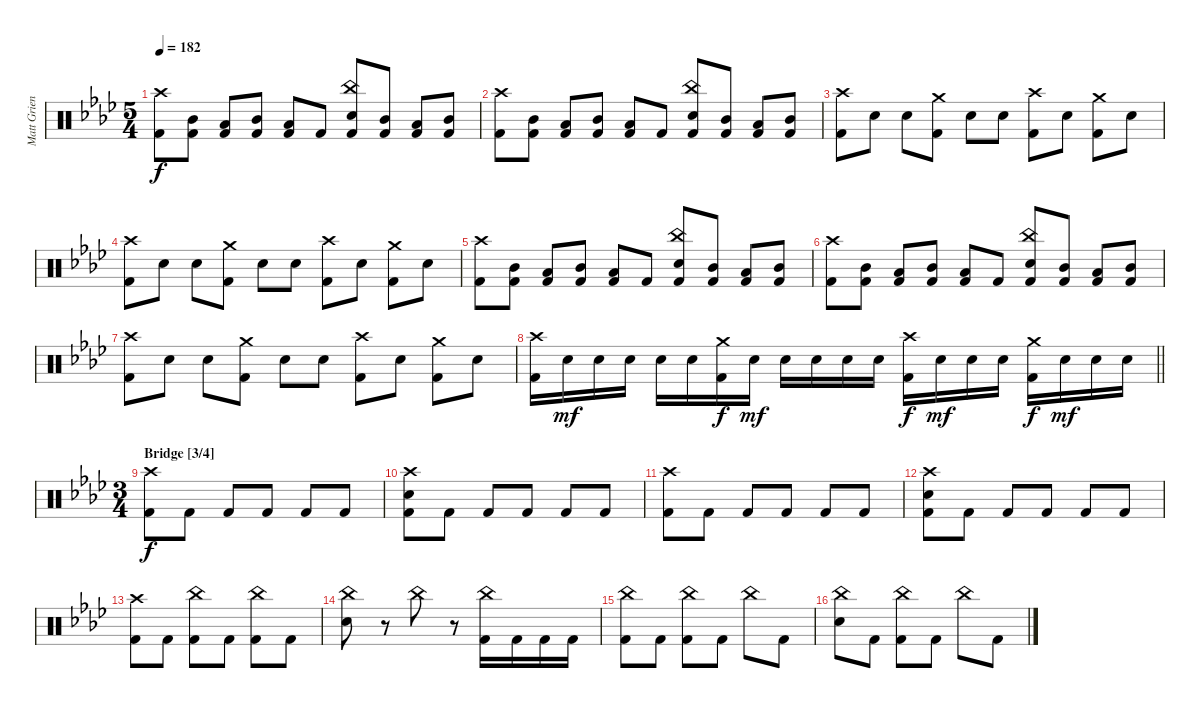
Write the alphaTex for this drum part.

\track ("Matt Griener [Drum Kit]" "Matt Grien") {instrument percussion}
\staff {score}
\articulation defaults
\ts (5 4)
\tempo 182
\clef neutral
\ks fminor
("Crash high (hit)" "Kick (hit) 2").8{dy f} ("Mid Tom (hit)" "Kick (hit) 2").8 ("Low Tom (hit)" "Kick (hit) 2").8 ("Mid Tom (hit)" "Kick (hit) 2").8 ("Low Floor Tom (hit)" "Kick (hit) 2").8 "Kick (hit) 2".8 ("China (hit)" "Electric Snare (hit)" "Kick (hit) 2").8 ("Mid Tom (hit)" "Kick (hit) 2").8 ("Low Tom (hit)" "Kick (hit) 2").8 ("Mid Tom (hit)" "Kick (hit) 2").8 |
("Crash high (hit)" "Kick (hit) 2").8 ("Mid Tom (hit)" "Kick (hit) 2").8 ("Low Tom (hit)" "Kick (hit) 2").8 ("Mid Tom (hit)" "Kick (hit) 2").8 ("Low Floor Tom (hit)" "Kick (hit) 2").8 "Kick (hit) 2".8 ("China (hit)" "Electric Snare (hit)" "Kick (hit) 2").8 ("Mid Tom (hit)" "Kick (hit) 2").8 ("Low Tom (hit)" "Kick (hit) 2").8 ("Mid Tom (hit)" "Kick (hit) 2").8 |
("Crash high (hit)" "Kick (hit) 2").8 "Electric Snare (hit)".8 "Electric Snare (hit)".8 ("Crash medium (hit)" "Kick (hit) 2").8 "Electric Snare (hit)".8 "Electric Snare (hit)".8 ("Crash high (hit)" "Kick (hit) 2").8 "Electric Snare (hit)".8 ("Crash medium (hit)" "Kick (hit) 2").8 "Electric Snare (hit)".8 |
("Crash high (hit)" "Kick (hit) 2").8 "Electric Snare (hit)".8 "Electric Snare (hit)".8 ("Crash medium (hit)" "Kick (hit) 2").8 "Electric Snare (hit)".8 "Electric Snare (hit)".8 ("Crash high (hit)" "Kick (hit) 2").8 "Electric Snare (hit)".8 ("Crash medium (hit)" "Kick (hit) 2").8 "Electric Snare (hit)".8 |
("Crash high (hit)" "Kick (hit) 2").8 ("Mid Tom (hit)" "Kick (hit) 2").8 ("Low Tom (hit)" "Kick (hit) 2").8 ("Mid Tom (hit)" "Kick (hit) 2").8 ("Low Floor Tom (hit)" "Kick (hit) 2").8 "Kick (hit) 2".8 ("China (hit)" "Electric Snare (hit)" "Kick (hit) 2").8 ("Mid Tom (hit)" "Kick (hit) 2").8 ("Low Tom (hit)" "Kick (hit) 2").8 ("Mid Tom (hit)" "Kick (hit) 2").8 |
("Crash high (hit)" "Kick (hit) 2").8 ("Mid Tom (hit)" "Kick (hit) 2").8 ("Low Tom (hit)" "Kick (hit) 2").8 ("Mid Tom (hit)" "Kick (hit) 2").8 ("Low Floor Tom (hit)" "Kick (hit) 2").8 "Kick (hit) 2".8 ("China (hit)" "Electric Snare (hit)" "Kick (hit) 2").8 ("Mid Tom (hit)" "Kick (hit) 2").8 ("Low Tom (hit)" "Kick (hit) 2").8 ("Mid Tom (hit)" "Kick (hit) 2").8 |
("Crash high (hit)" "Kick (hit) 2").8 "Electric Snare (hit)".8 "Electric Snare (hit)".8 ("Crash medium (hit)" "Kick (hit) 2").8 "Electric Snare (hit)".8 "Electric Snare (hit)".8 ("Crash high (hit)" "Kick (hit) 2").8 "Electric Snare (hit)".8 ("Crash medium (hit)" "Kick (hit) 2").8 "Electric Snare (hit)".8 |
\barLineRight lightlight
("Crash high (hit)" "Kick (hit) 2").16 "Electric Snare (hit)".16{dy mf} "Electric Snare (hit)".16 "Electric Snare (hit)".16 "Electric Snare (hit)".16 "Electric Snare (hit)".16 ("Crash medium (hit)" "Kick (hit) 2").16{dy f} "Electric Snare (hit)".16{dy mf} "Electric Snare (hit)".16 "Electric Snare (hit)".16 "Electric Snare (hit)".16 "Electric Snare (hit)".16 ("Crash high (hit)" "Kick (hit) 2").16{dy f} "Electric Snare (hit)".16{dy mf} "Electric Snare (hit)".16 "Electric Snare (hit)".16 ("Crash medium (hit)" "Kick (hit) 2").16{dy f} "Electric Snare (hit)".16{dy mf} "Electric Snare (hit)".16 "Electric Snare (hit)".16 |
\ts (3 4)
\section ("" "Bridge [3/4]")
("Crash high (hit)" "Kick (hit) 2").8{dy f} "Kick (hit) 2".8 "Kick (hit) 2".8 "Kick (hit) 2".8 "Kick (hit) 2".8 "Kick (hit) 2".8 |
("Crash high (hit)" "Electric Snare (hit)" "Kick (hit) 2").8 "Kick (hit) 2".8 "Kick (hit) 2".8 "Kick (hit) 2".8 "Kick (hit) 2".8 "Kick (hit) 2".8 |
("Crash high (hit)" "Kick (hit) 2").8 "Kick (hit) 2".8 "Kick (hit) 2".8 "Kick (hit) 2".8 "Kick (hit) 2".8 "Kick (hit) 2".8 |
("Crash high (hit)" "Electric Snare (hit)" "Kick (hit) 2").8 "Kick (hit) 2".8 "Kick (hit) 2".8 "Kick (hit) 2".8 "Kick (hit) 2".8 "Kick (hit) 2".8 |
("Crash high (hit)" "Kick (hit) 2").8 "Kick (hit) 2".8 ("China (hit)" "Kick (hit) 2").8 "Kick (hit) 2".8 ("China (hit)" "Kick (hit) 2").8 "Kick (hit) 2".8 |
("China (hit)" "Electric Snare (hit)").8 r.8 "China (hit)".8 r.8 ("China (hit)" "Kick (hit) 2").16 "Kick (hit) 2".16 "Kick (hit) 2".16 "Kick (hit) 2".16 |
("China (hit)" "Kick (hit) 2").8 "Kick (hit) 2".8 ("China (hit)" "Kick (hit) 2").8 "Kick (hit) 2".8 "China (hit)".8 "Kick (hit) 2".8 |
("China (hit)" "Electric Snare (hit)").8 "Kick (hit) 2".8 ("China (hit)" "Kick (hit) 2").8 "Kick (hit) 2".8 "China (hit)".8 "Kick (hit) 2".8
